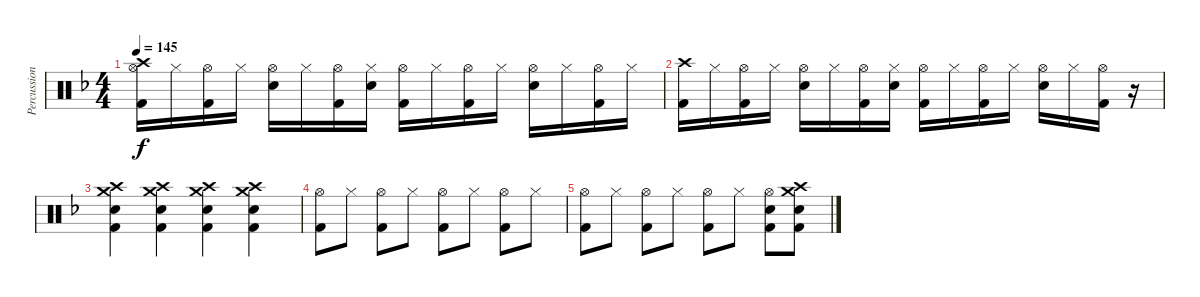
\track ("Percussion" "Percussion") {instrument percussion}
\staff {score}
\articulation defaults
\ts (4 4)
\tempo 145
\clef neutral
\ks f
("Crash high (hit)" "Hi-Hat (open)" "Kick (hit) 2").16{dy f} "Hi-Hat (closed)".16 ("Hi-Hat (open)" "Kick (hit) 2").16 "Hi-Hat (closed)".16 ("Hi-Hat (open)" "Electric Snare (hit)").16 "Hi-Hat (closed)".16 ("Hi-Hat (open)" "Kick (hit) 2").16 ("Hi-Hat (closed)" "Electric Snare (hit)").16 ("Hi-Hat (open)" "Kick (hit) 2").16 "Hi-Hat (closed)".16 ("Hi-Hat (open)" "Kick (hit) 2").16 "Hi-Hat (closed)".16 ("Hi-Hat (open)" "Electric Snare (hit)").16 "Hi-Hat (closed)".16 ("Hi-Hat (open)" "Kick (hit) 2").16 "Hi-Hat (closed)".16 |
("Crash high (hit)" "Kick (hit) 2").16 "Hi-Hat (closed)".16 ("Hi-Hat (open)" "Kick (hit) 2").16 "Hi-Hat (closed)".16 ("Hi-Hat (open)" "Electric Snare (hit)").16 "Hi-Hat (closed)".16 ("Hi-Hat (open)" "Kick (hit) 2").16 ("Hi-Hat (closed)" "Electric Snare (hit)").16 ("Hi-Hat (open)" "Kick (hit) 2").16 "Hi-Hat (closed)".16 ("Hi-Hat (open)" "Kick (hit) 2").16 "Hi-Hat (closed)".16 ("Hi-Hat (open)" "Electric Snare (hit)").16 "Hi-Hat (closed)".16 ("Hi-Hat (open)" "Kick (hit) 2").16 r.16 |
("Crash high (hit)" "Crash medium (hit)" "Electric Snare (hit)" "Kick (hit) 2").4 ("Crash high (hit)" "Crash medium (hit)" "Electric Snare (hit)" "Kick (hit) 2").4 ("Crash high (hit)" "Crash medium (hit)" "Electric Snare (hit)" "Kick (hit) 2").4 ("Crash high (hit)" "Crash medium (hit)" "Electric Snare (hit)" "Kick (hit) 2").4 |
("Hi-Hat (open)" "Kick (hit) 2").8 "Hi-Hat (closed)".8 ("Hi-Hat (open)" "Kick (hit) 2").8 "Hi-Hat (closed)".8 ("Hi-Hat (open)" "Kick (hit) 2").8 "Hi-Hat (closed)".8 ("Hi-Hat (open)" "Kick (hit) 2").8 "Hi-Hat (closed)".8 |
("Hi-Hat (open)" "Kick (hit) 2").8 "Hi-Hat (closed)".8 ("Hi-Hat (open)" "Kick (hit) 2").8 "Hi-Hat (closed)".8 ("Hi-Hat (open)" "Kick (hit) 2").8 "Hi-Hat (closed)".8 ("Hi-Hat (open)" "Electric Snare (hit)" "Kick (hit) 2").8 ("Crash high (hit)" "Crash medium (hit)" "Electric Snare (hit)" "Kick (hit) 2").8
